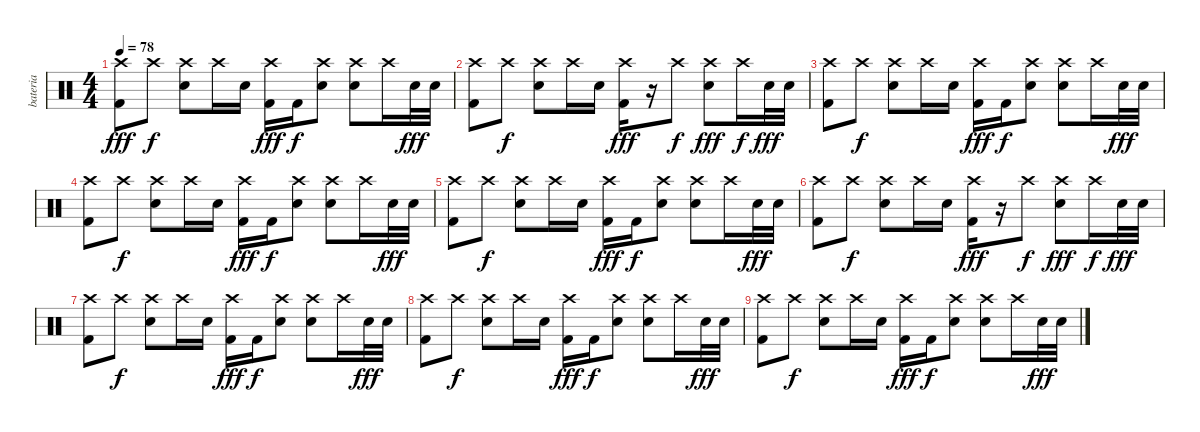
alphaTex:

\track ("bateria" "bateria") {instrument percussion}
\staff {score}
\articulation defaults
\ts (4 4)
\tempo 78
\clef neutral
\ks c
("Kick (hit) 2" "Crash high (hit)").8{dy fff} "Crash high (hit)".8{dy f} ("Electric Snare (hit)" "Crash high (hit)").8 "Crash high (hit)".16 "Electric Snare (hit)".16 ("Kick (hit) 2" "Crash high (hit)").16{dy fff} "Kick (hit) 2".16{dy f} ("Electric Snare (hit)" "Crash high (hit)").8 ("Electric Snare (hit)" "Crash high (hit)").8 "Crash high (hit)".16 "Electric Snare (hit)".32{dy fff} "Electric Snare (hit)".32 |
("Kick (hit) 2" "Crash high (hit)").8 "Crash high (hit)".8{dy f} ("Electric Snare (hit)" "Crash high (hit)").8 "Crash high (hit)".16 "Electric Snare (hit)".16 ("Kick (hit) 2" "Crash high (hit)").16{dy fff} r.16 "Crash high (hit)".8{dy f} ("Electric Snare (hit)" "Crash high (hit)").8{dy fff} "Crash high (hit)".16{dy f} "Electric Snare (hit)".32{dy fff} "Electric Snare (hit)".32 |
("Kick (hit) 2" "Crash high (hit)").8 "Crash high (hit)".8{dy f} ("Electric Snare (hit)" "Crash high (hit)").8 "Crash high (hit)".16 "Electric Snare (hit)".16 ("Kick (hit) 2" "Crash high (hit)").16{dy fff} "Kick (hit) 2".16{dy f} ("Electric Snare (hit)" "Crash high (hit)").8 ("Electric Snare (hit)" "Crash high (hit)").8 "Crash high (hit)".16 "Electric Snare (hit)".32{dy fff} "Electric Snare (hit)".32 |
("Kick (hit) 2" "Crash high (hit)").8 "Crash high (hit)".8{dy f} ("Electric Snare (hit)" "Crash high (hit)").8 "Crash high (hit)".16 "Electric Snare (hit)".16 ("Kick (hit) 2" "Crash high (hit)").16{dy fff} "Kick (hit) 2".16{dy f} ("Electric Snare (hit)" "Crash high (hit)").8 ("Electric Snare (hit)" "Crash high (hit)").8 "Crash high (hit)".16 "Electric Snare (hit)".32{dy fff} "Electric Snare (hit)".32 |
("Kick (hit) 2" "Crash high (hit)").8 "Crash high (hit)".8{dy f} ("Electric Snare (hit)" "Crash high (hit)").8 "Crash high (hit)".16 "Electric Snare (hit)".16 ("Kick (hit) 2" "Crash high (hit)").16{dy fff} "Kick (hit) 2".16{dy f} ("Electric Snare (hit)" "Crash high (hit)").8 ("Electric Snare (hit)" "Crash high (hit)").8 "Crash high (hit)".16 "Electric Snare (hit)".32{dy fff} "Electric Snare (hit)".32 |
("Kick (hit) 2" "Crash high (hit)").8 "Crash high (hit)".8{dy f} ("Electric Snare (hit)" "Crash high (hit)").8 "Crash high (hit)".16 "Electric Snare (hit)".16 ("Kick (hit) 2" "Crash high (hit)").16{dy fff} r.16 "Crash high (hit)".8{dy f} ("Electric Snare (hit)" "Crash high (hit)").8{dy fff} "Crash high (hit)".16{dy f} "Electric Snare (hit)".32{dy fff} "Electric Snare (hit)".32 |
("Kick (hit) 2" "Crash high (hit)").8 "Crash high (hit)".8{dy f} ("Electric Snare (hit)" "Crash high (hit)").8 "Crash high (hit)".16 "Electric Snare (hit)".16 ("Kick (hit) 2" "Crash high (hit)").16{dy fff} "Kick (hit) 2".16{dy f} ("Electric Snare (hit)" "Crash high (hit)").8 ("Electric Snare (hit)" "Crash high (hit)").8 "Crash high (hit)".16 "Electric Snare (hit)".32{dy fff} "Electric Snare (hit)".32 |
("Kick (hit) 2" "Crash high (hit)").8 "Crash high (hit)".8{dy f} ("Electric Snare (hit)" "Crash high (hit)").8 "Crash high (hit)".16 "Electric Snare (hit)".16 ("Kick (hit) 2" "Crash high (hit)").16{dy fff} "Kick (hit) 2".16{dy f} ("Electric Snare (hit)" "Crash high (hit)").8 ("Electric Snare (hit)" "Crash high (hit)").8 "Crash high (hit)".16 "Electric Snare (hit)".32{dy fff} "Electric Snare (hit)".32 |
("Kick (hit) 2" "Crash high (hit)").8 "Crash high (hit)".8{dy f} ("Electric Snare (hit)" "Crash high (hit)").8 "Crash high (hit)".16 "Electric Snare (hit)".16 ("Kick (hit) 2" "Crash high (hit)").16{dy fff} "Kick (hit) 2".16{dy f} ("Electric Snare (hit)" "Crash high (hit)").8 ("Electric Snare (hit)" "Crash high (hit)").8 "Crash high (hit)".16 "Electric Snare (hit)".32{dy fff} "Electric Snare (hit)".32
